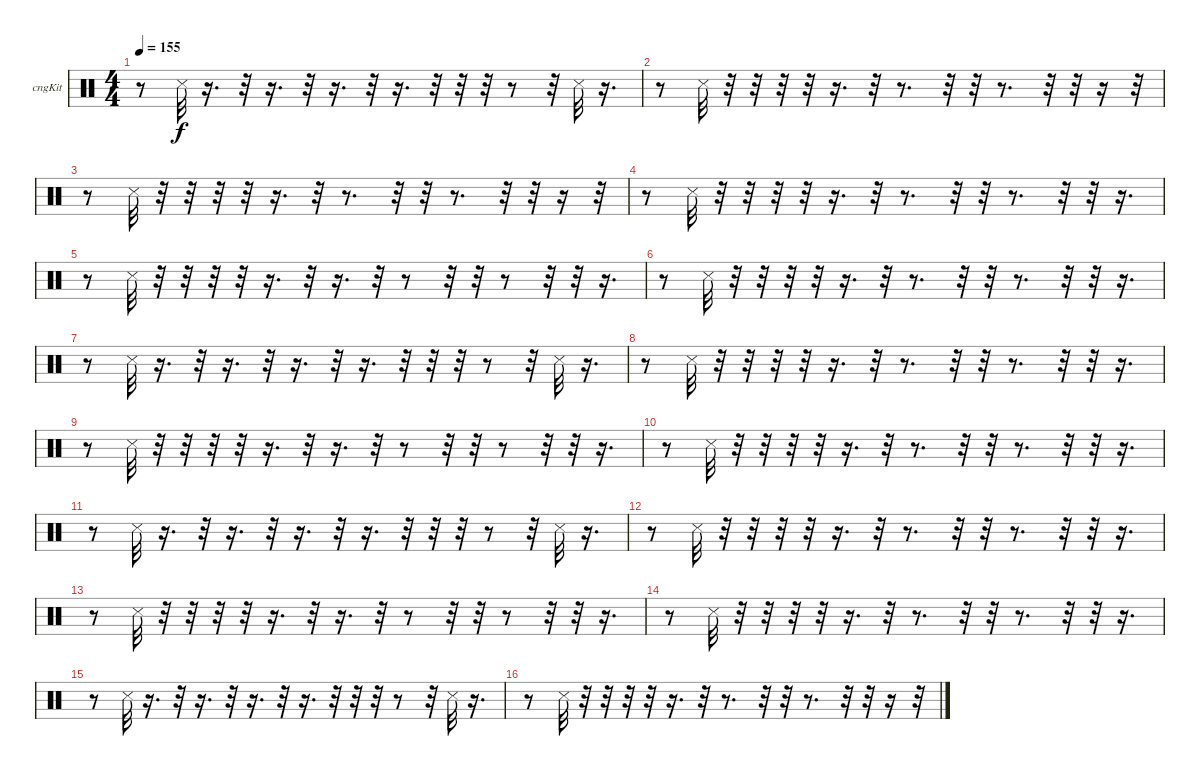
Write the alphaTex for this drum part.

\bracketExtendMode groupsimilarinstruments
\firstSystemTrackNameOrientation horizontal
\otherSystemsTrackNameOrientation horizontal
\track ("Е. Кулаков" "cngKit") {instrument percussion}
\staff {score}
\articulation defaults
\ts (4 4)
\tempo 155
\clef neutral
\ks c
r.8{dy f} "Snare (side stick) 3".32 r.16{d} r.32 r.16{d} r.32 r.16{d} r.32 r.16{d} r.32 r.32 r.32 r.8 r.32 "Snare (side stick) 3".32 r.16{d} |
r.8 "Snare (side stick) 3".32 r.32 r.32 r.32 r.32 r.16{d} r.32 r.8{d} r.32 r.32 r.8{d} r.32 r.32 r.16 r.32 |
r.8 "Snare (side stick) 3".32 r.32 r.32 r.32 r.32 r.16{d} r.32 r.8{d} r.32 r.32 r.8{d} r.32 r.32 r.16 r.32 |
r.8 "Snare (side stick) 3".32 r.32 r.32 r.32 r.32 r.16{d} r.32 r.8{d} r.32 r.32 r.8{d} r.32 r.32 r.16{d} |
r.8 "Snare (side stick) 3".32 r.32 r.32 r.32 r.32 r.16{d} r.32 r.16{d} r.32 r.8 r.32 r.32 r.8 r.32 r.32 r.16{d} |
r.8 "Snare (side stick) 3".32 r.32 r.32 r.32 r.32 r.16{d} r.32 r.8{d} r.32 r.32 r.8{d} r.32 r.32 r.16{d} |
r.8 "Snare (side stick) 3".32 r.16{d} r.32 r.16{d} r.32 r.16{d} r.32 r.16{d} r.32 r.32 r.32 r.8 r.32 "Snare (side stick) 3".32 r.16{d} |
r.8 "Snare (side stick) 3".32 r.32 r.32 r.32 r.32 r.16{d} r.32 r.8{d} r.32 r.32 r.8{d} r.32 r.32 r.16{d} |
r.8 "Snare (side stick) 3".32 r.32 r.32 r.32 r.32 r.16{d} r.32 r.16{d} r.32 r.8 r.32 r.32 r.8 r.32 r.32 r.16{d} |
r.8 "Snare (side stick) 3".32 r.32 r.32 r.32 r.32 r.16{d} r.32 r.8{d} r.32 r.32 r.8{d} r.32 r.32 r.16{d} |
r.8 "Snare (side stick) 3".32 r.16{d} r.32 r.16{d} r.32 r.16{d} r.32 r.16{d} r.32 r.32 r.32 r.8 r.32 "Snare (side stick) 3".32 r.16{d} |
r.8 "Snare (side stick) 3".32 r.32 r.32 r.32 r.32 r.16{d} r.32 r.8{d} r.32 r.32 r.8{d} r.32 r.32 r.16{d} |
r.8 "Snare (side stick) 3".32 r.32 r.32 r.32 r.32 r.16{d} r.32 r.16{d} r.32 r.8 r.32 r.32 r.8 r.32 r.32 r.16{d} |
r.8 "Snare (side stick) 3".32 r.32 r.32 r.32 r.32 r.16{d} r.32 r.8{d} r.32 r.32 r.8{d} r.32 r.32 r.16{d} |
r.8 "Snare (side stick) 3".32 r.16{d} r.32 r.16{d} r.32 r.16{d} r.32 r.16{d} r.32 r.32 r.32 r.8 r.32 "Snare (side stick) 3".32 r.16{d} |
r.8 "Snare (side stick) 3".32 r.32 r.32 r.32 r.32 r.16{d} r.32 r.8{d} r.32 r.32 r.8{d} r.32 r.32 r.16 r.32
